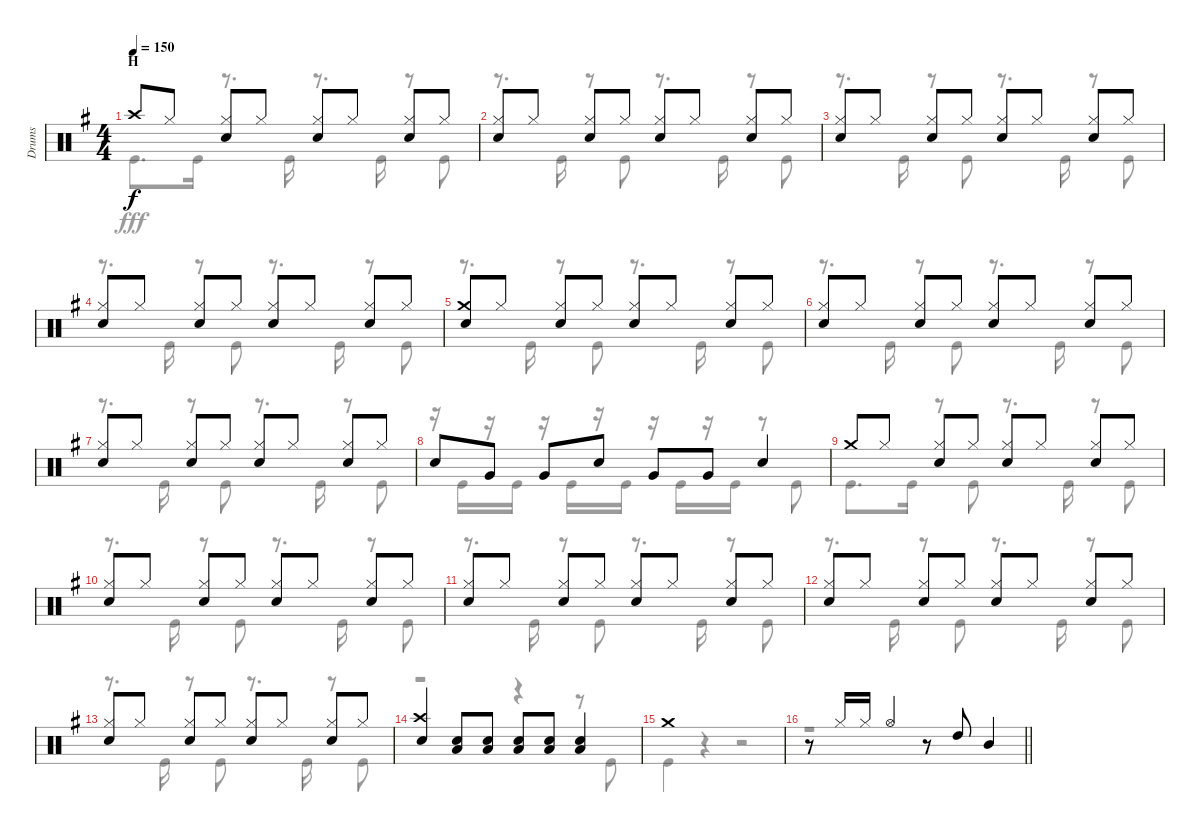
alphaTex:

\track ("Drums" "Drums") {instrument percussion}
\staff {score}
\articulation defaults
\voice
\ts (4 4)
\section ("" "H")
\tempo 150
\clef neutral
\ks g "Crash high (hit)".8{dy f} "Hi-Hat (closed)".8
("Hi-Hat (closed)" "Snare (hit) 2").8 "Hi-Hat (closed)".8 ("Hi-Hat (closed)" "Snare (hit) 2").8 "Hi-Hat (closed)".8 ("Hi-Hat (closed)" "Snare (hit) 2").8 "Hi-Hat (closed)".8 |
("Hi-Hat (closed)" "Snare (hit) 2").8 "Hi-Hat (closed)".8 ("Hi-Hat (closed)" "Snare (hit) 2").8 "Hi-Hat (closed)".8 ("Hi-Hat (closed)" "Snare (hit) 2").8 "Hi-Hat (closed)".8 ("Hi-Hat (closed)" "Snare (hit) 2").8 "Hi-Hat (closed)".8 |
("Hi-Hat (closed)" "Snare (hit) 2").8 "Hi-Hat (closed)".8 ("Hi-Hat (closed)" "Snare (hit) 2").8 "Hi-Hat (closed)".8 ("Hi-Hat (closed)" "Snare (hit) 2").8 "Hi-Hat (closed)".8 ("Hi-Hat (closed)" "Snare (hit) 2").8 "Hi-Hat (closed)".8 |
("Hi-Hat (closed)" "Snare (hit) 2").8 "Hi-Hat (closed)".8 ("Hi-Hat (closed)" "Snare (hit) 2").8 "Hi-Hat (closed)".8 ("Hi-Hat (closed)" "Snare (hit) 2").8 "Hi-Hat (closed)".8 ("Hi-Hat (closed)" "Snare (hit) 2").8 "Hi-Hat (closed)".8 |
("Crash medium (hit)" "Snare (hit) 2").8 "Hi-Hat (closed)".8 ("Hi-Hat (closed)" "Snare (hit) 2").8 "Hi-Hat (closed)".8 ("Hi-Hat (closed)" "Snare (hit) 2").8 "Hi-Hat (closed)".8 ("Hi-Hat (closed)" "Snare (hit) 2").8 "Hi-Hat (closed)".8 |
("Hi-Hat (closed)" "Snare (hit) 2").8 "Hi-Hat (closed)".8 ("Hi-Hat (closed)" "Snare (hit) 2").8 "Hi-Hat (closed)".8 ("Hi-Hat (closed)" "Snare (hit) 2").8 "Hi-Hat (closed)".8 ("Hi-Hat (closed)" "Snare (hit) 2").8 "Hi-Hat (closed)".8 |
("Hi-Hat (closed)" "Snare (hit) 2").8 "Hi-Hat (closed)".8 ("Hi-Hat (closed)" "Snare (hit) 2").8 "Hi-Hat (closed)".8 ("Hi-Hat (closed)" "Snare (hit) 2").8 "Hi-Hat (closed)".8 ("Hi-Hat (closed)" "Snare (hit) 2").8 "Hi-Hat (closed)".8 |
"Snare (hit) 2".8 "Very Low Tom (hit)".8 "Very Low Tom (hit)".8 "Snare (hit) 2".8 "Very Low Tom (hit)".8 "Very Low Tom (hit)".8 "Snare (hit) 2".4 |
"Crash medium (hit)".8 "Hi-Hat (closed)".8 ("Hi-Hat (closed)" "Snare (hit) 2").8 "Hi-Hat (closed)".8 ("Hi-Hat (closed)" "Snare (hit) 2").8 "Hi-Hat (closed)".8 ("Hi-Hat (closed)" "Snare (hit) 2").8 "Hi-Hat (closed)".8 |
("Hi-Hat (closed)" "Snare (hit) 2").8 "Hi-Hat (closed)".8 ("Hi-Hat (closed)" "Snare (hit) 2").8 "Hi-Hat (closed)".8 ("Hi-Hat (closed)" "Snare (hit) 2").8 "Hi-Hat (closed)".8 ("Hi-Hat (closed)" "Snare (hit) 2").8 "Hi-Hat (closed)".8 |
("Hi-Hat (closed)" "Snare (hit) 2").8 "Hi-Hat (closed)".8 ("Hi-Hat (closed)" "Snare (hit) 2").8 "Hi-Hat (closed)".8 ("Hi-Hat (closed)" "Snare (hit) 2").8 "Hi-Hat (closed)".8 ("Hi-Hat (closed)" "Snare (hit) 2").8 "Hi-Hat (closed)".8 |
("Hi-Hat (closed)" "Snare (hit) 2").8 "Hi-Hat (closed)".8 ("Hi-Hat (closed)" "Snare (hit) 2").8 "Hi-Hat (closed)".8 ("Hi-Hat (closed)" "Snare (hit) 2").8 "Hi-Hat (closed)".8 ("Hi-Hat (closed)" "Snare (hit) 2").8 "Hi-Hat (closed)".8 |
("Hi-Hat (closed)" "Snare (hit) 2").8 "Hi-Hat (closed)".8 ("Hi-Hat (closed)" "Snare (hit) 2").8 "Hi-Hat (closed)".8 ("Hi-Hat (closed)" "Snare (hit) 2").8 "Hi-Hat (closed)".8 ("Hi-Hat (closed)" "Snare (hit) 2").8 "Hi-Hat (closed)".8 |
("Crash high (hit)" "Snare (hit) 2").4 ("Low Tom (hit)" "Snare (hit) 2").8 ("Low Tom (hit)" "Snare (hit) 2").8 ("Low Tom (hit)" "Snare (hit) 2").8 ("Low Tom (hit)" "Snare (hit) 2").8 ("Low Tom (hit)" "Snare (hit) 2").4 |
"Crash medium (hit)".1 |
\barLineRight lightlight
r.8 "Hi-Hat (closed)".16 "Hi-Hat (closed)".16 "Hi-Hat (open)".4 r.8 "High Tom (hit)".8 "Mid Tom (hit)".4
\voice
\clef neutral
\ottava regular
\simile none
\ks g "Kick (hit)".8{d dy fff} "Kick (hit)".16
r.8{d} "Kick (hit)".16 r.8{d} "Kick (hit)".16 r.8 "Kick (hit)".8 |
r.8{d} "Kick (hit)".16 r.8 "Kick (hit)".8 r.8{d} "Kick (hit)".16 r.8 "Kick (hit)".8 |
r.8{d} "Kick (hit)".16 r.8 "Kick (hit)".8 r.8{d} "Kick (hit)".16 r.8 "Kick (hit)".8 |
r.8{d} "Kick (hit)".16 r.8 "Kick (hit)".8 r.8{d} "Kick (hit)".16 r.8 "Kick (hit)".8 |
r.8{d} "Kick (hit)".16 r.8 "Kick (hit)".8 r.8{d} "Kick (hit)".16 r.8 "Kick (hit)".8 |
r.8{d} "Kick (hit)".16 r.8 "Kick (hit)".8 r.8{d} "Kick (hit)".16 r.8 "Kick (hit)".8 |
r.8{d} "Kick (hit)".16 r.8 "Kick (hit)".8 r.8{d} "Kick (hit)".16 r.8 "Kick (hit)".8 |
r.16 "Kick (hit)".16 r.16 "Kick (hit)".16 r.16 "Kick (hit)".16 r.16 "Kick (hit)".16 r.16 "Kick (hit)".16 r.16 "Kick (hit)".16 r.8 "Kick (hit)".8 |
"Kick (hit)".8{d} "Kick (hit)".16 r.8 "Kick (hit)".8 r.8{d} "Kick (hit)".16 r.8 "Kick (hit)".8 |
r.8{d} "Kick (hit)".16 r.8 "Kick (hit)".8 r.8{d} "Kick (hit)".16 r.8 "Kick (hit)".8 |
r.8{d} "Kick (hit)".16 r.8 "Kick (hit)".8 r.8{d} "Kick (hit)".16 r.8 "Kick (hit)".8 |
r.8{d} "Kick (hit)".16 r.8 "Kick (hit)".8 r.8{d} "Kick (hit)".16 r.8 "Kick (hit)".8 |
r.8{d} "Kick (hit)".16 r.8 "Kick (hit)".8 r.8{d} "Kick (hit)".16 r.8 "Kick (hit)".8 |
r.2 r.4 r.8 "Kick (hit)".8 |
"Kick (hit)".4 r.4 r.2 |
\barLineRight lightlight
r.1
